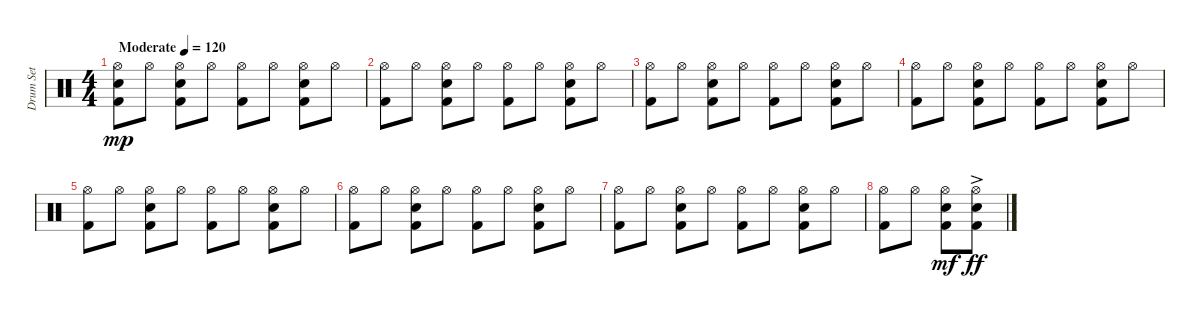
\track ("Drum Set" "Drum Set") {instrument percussion}
\staff {score}
\articulation defaults
\ts (4 4)
\tempo (120 "Moderate")
\clef neutral
\ks c
("Hi-Hat (open)" "Electric Snare (hit)" "Kick (hit) 2").8{dy mp} "Hi-Hat (open)".8 ("Hi-Hat (open)" "Electric Snare (hit)" "Kick (hit) 2").8 "Hi-Hat (open)".8 ("Hi-Hat (open)" "Kick (hit) 2").8 "Hi-Hat (open)".8 ("Hi-Hat (open)" "Electric Snare (hit)" "Kick (hit) 2").8 "Hi-Hat (open)".8 |
("Hi-Hat (open)" "Kick (hit) 2").8 "Hi-Hat (open)".8 ("Hi-Hat (open)" "Electric Snare (hit)" "Kick (hit) 2").8 "Hi-Hat (open)".8 ("Hi-Hat (open)" "Kick (hit) 2").8 "Hi-Hat (open)".8 ("Hi-Hat (open)" "Electric Snare (hit)" "Kick (hit) 2").8 "Hi-Hat (open)".8 |
("Hi-Hat (open)" "Kick (hit) 2").8 "Hi-Hat (open)".8 ("Hi-Hat (open)" "Electric Snare (hit)" "Kick (hit) 2").8 "Hi-Hat (open)".8 ("Hi-Hat (open)" "Kick (hit) 2").8 "Hi-Hat (open)".8 ("Hi-Hat (open)" "Electric Snare (hit)" "Kick (hit) 2").8 "Hi-Hat (open)".8 |
("Hi-Hat (open)" "Kick (hit) 2").8 "Hi-Hat (open)".8 ("Hi-Hat (open)" "Electric Snare (hit)" "Kick (hit) 2").8 "Hi-Hat (open)".8 ("Hi-Hat (open)" "Kick (hit) 2").8 "Hi-Hat (open)".8 ("Hi-Hat (open)" "Electric Snare (hit)" "Kick (hit) 2").8 "Hi-Hat (open)".8 |
("Hi-Hat (open)" "Kick (hit) 2").8 "Hi-Hat (open)".8 ("Hi-Hat (open)" "Electric Snare (hit)" "Kick (hit) 2").8 "Hi-Hat (open)".8 ("Hi-Hat (open)" "Kick (hit) 2").8 "Hi-Hat (open)".8 ("Hi-Hat (open)" "Electric Snare (hit)" "Kick (hit) 2").8 "Hi-Hat (open)".8 |
("Hi-Hat (open)" "Kick (hit) 2").8 "Hi-Hat (open)".8 ("Hi-Hat (open)" "Electric Snare (hit)" "Kick (hit) 2").8 "Hi-Hat (open)".8 ("Hi-Hat (open)" "Kick (hit) 2").8 "Hi-Hat (open)".8 ("Hi-Hat (open)" "Electric Snare (hit)" "Kick (hit) 2").8 "Hi-Hat (open)".8 |
("Hi-Hat (open)" "Kick (hit) 2").8 "Hi-Hat (open)".8 ("Hi-Hat (open)" "Electric Snare (hit)" "Kick (hit) 2").8 "Hi-Hat (open)".8 ("Hi-Hat (open)" "Kick (hit) 2").8 "Hi-Hat (open)".8 ("Hi-Hat (open)" "Electric Snare (hit)" "Kick (hit) 2").8 "Hi-Hat (open)".8 |
("Hi-Hat (open)" "Kick (hit) 2").8 "Hi-Hat (open)".8 ("Hi-Hat (open)" "Electric Snare (hit)" "Kick (hit) 2").8{dy mf} ("Hi-Hat (open)"{ac} "Electric Snare (hit)"{ac} "Kick (hit) 2"{ac}).8{dy ff}
